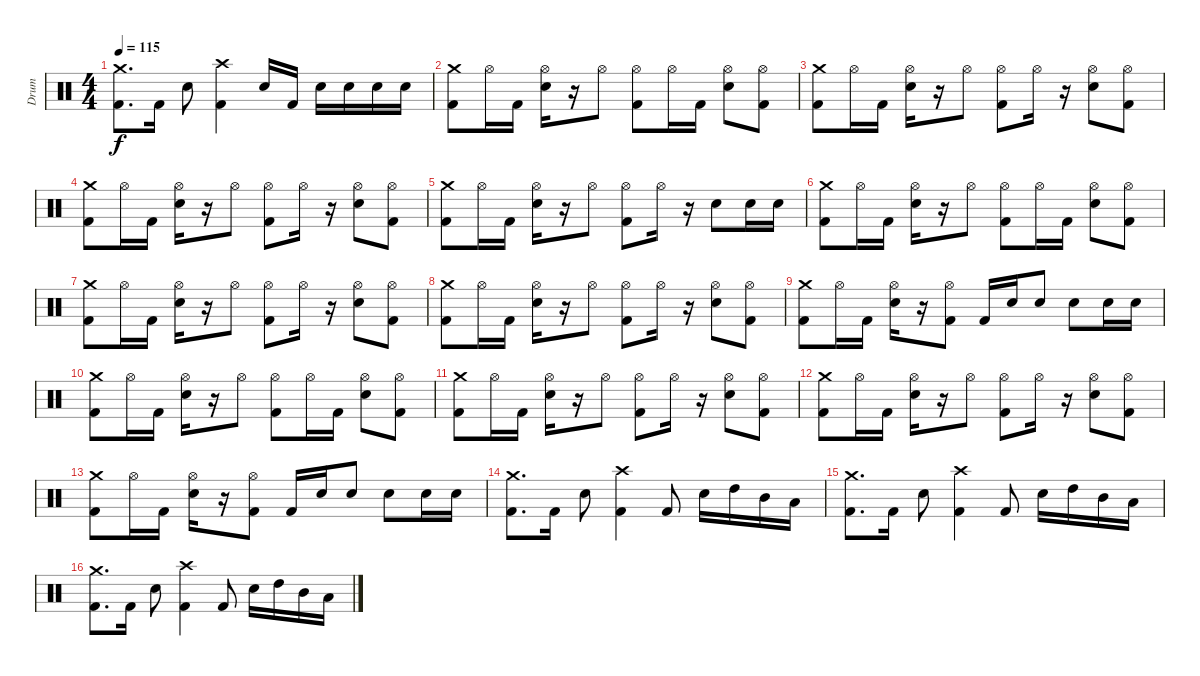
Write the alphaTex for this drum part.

\track ("Drum" "Drum") {instrument percussion}
\staff {score}
\articulation defaults
\ts (4 4)
\tempo 115
\clef neutral
\ks c
("Crash medium (hit)" "Kick (hit) 2").8{d dy f} "Kick (hit) 2".16 "Snare (hit) 2".8 ("Crash high (hit)" "Kick (hit) 2").4 "Electric Snare (hit)".16 "Kick (hit) 2".16 "Electric Snare (hit)".16 "Electric Snare (hit)".16 "Electric Snare (hit)".16 "Electric Snare (hit)".16 |
("Crash medium (hit)" "Kick (hit) 2").8 "Hi-Hat (open)".16 "Kick (hit) 2".16 ("Hi-Hat (open)" "Electric Snare (hit)").16 r.16 "Hi-Hat (open)".8 ("Hi-Hat (open)" "Kick (hit) 2").8 "Hi-Hat (open)".16 "Kick (hit) 2".16 ("Hi-Hat (open)" "Electric Snare (hit)").8 ("Hi-Hat (open)" "Kick (hit) 2").8 |
("Crash medium (hit)" "Kick (hit) 2").8 "Hi-Hat (open)".16 "Kick (hit) 2".16 ("Hi-Hat (open)" "Electric Snare (hit)").16 r.16 "Hi-Hat (open)".8 ("Hi-Hat (open)" "Kick (hit) 2").8 "Hi-Hat (open)".16 r.16 ("Hi-Hat (open)" "Electric Snare (hit)").8 ("Hi-Hat (open)" "Kick (hit) 2").8 |
("Crash medium (hit)" "Kick (hit) 2").8 "Hi-Hat (open)".16 "Kick (hit) 2".16 ("Hi-Hat (open)" "Electric Snare (hit)").16 r.16 "Hi-Hat (open)".8 ("Hi-Hat (open)" "Kick (hit) 2").8 "Hi-Hat (open)".16 r.16 ("Hi-Hat (open)" "Electric Snare (hit)").8 ("Hi-Hat (open)" "Kick (hit) 2").8 |
("Crash medium (hit)" "Kick (hit) 2").8 "Hi-Hat (open)".16 "Kick (hit) 2".16 ("Hi-Hat (open)" "Electric Snare (hit)").16 r.16 "Hi-Hat (open)".8 ("Hi-Hat (open)" "Kick (hit) 2").8 "Hi-Hat (open)".16 r.16 "Electric Snare (hit)".8 "Electric Snare (hit)".16 "Electric Snare (hit)".16 |
("Crash medium (hit)" "Kick (hit) 2").8 "Hi-Hat (open)".16 "Kick (hit) 2".16 ("Hi-Hat (open)" "Electric Snare (hit)").16 r.16 "Hi-Hat (open)".8 ("Hi-Hat (open)" "Kick (hit) 2").8 "Hi-Hat (open)".16 "Kick (hit) 2".16 ("Hi-Hat (open)" "Electric Snare (hit)").8 ("Hi-Hat (open)" "Kick (hit) 2").8 |
("Crash medium (hit)" "Kick (hit) 2").8 "Hi-Hat (open)".16 "Kick (hit) 2".16 ("Hi-Hat (open)" "Electric Snare (hit)").16 r.16 "Hi-Hat (open)".8 ("Hi-Hat (open)" "Kick (hit) 2").8 "Hi-Hat (open)".16 r.16 ("Hi-Hat (open)" "Electric Snare (hit)").8 ("Hi-Hat (open)" "Kick (hit) 2").8 |
("Crash medium (hit)" "Kick (hit) 2").8 "Hi-Hat (open)".16 "Kick (hit) 2".16 ("Hi-Hat (open)" "Electric Snare (hit)").16 r.16 "Hi-Hat (open)".8 ("Hi-Hat (open)" "Kick (hit) 2").8 "Hi-Hat (open)".16 r.16 ("Hi-Hat (open)" "Electric Snare (hit)").8 ("Hi-Hat (open)" "Kick (hit) 2").8 |
("Crash medium (hit)" "Kick (hit) 2").8 "Hi-Hat (open)".16 "Kick (hit) 2".16 ("Hi-Hat (open)" "Electric Snare (hit)").16 r.16 ("Hi-Hat (open)" "Kick (hit) 2").8 "Kick (hit) 2".16 "Electric Snare (hit)".16 "Electric Snare (hit)".8 "Electric Snare (hit)".8 "Electric Snare (hit)".16 "Electric Snare (hit)".16 |
("Crash medium (hit)" "Kick (hit) 2").8 "Hi-Hat (open)".16 "Kick (hit) 2".16 ("Hi-Hat (open)" "Electric Snare (hit)").16 r.16 "Hi-Hat (open)".8 ("Hi-Hat (open)" "Kick (hit) 2").8 "Hi-Hat (open)".16 "Kick (hit) 2".16 ("Hi-Hat (open)" "Electric Snare (hit)").8 ("Hi-Hat (open)" "Kick (hit) 2").8 |
("Crash medium (hit)" "Kick (hit) 2").8 "Hi-Hat (open)".16 "Kick (hit) 2".16 ("Hi-Hat (open)" "Electric Snare (hit)").16 r.16 "Hi-Hat (open)".8 ("Hi-Hat (open)" "Kick (hit) 2").8 "Hi-Hat (open)".16 r.16 ("Hi-Hat (open)" "Electric Snare (hit)").8 ("Hi-Hat (open)" "Kick (hit) 2").8 |
("Crash medium (hit)" "Kick (hit) 2").8 "Hi-Hat (open)".16 "Kick (hit) 2".16 ("Hi-Hat (open)" "Electric Snare (hit)").16 r.16 "Hi-Hat (open)".8 ("Hi-Hat (open)" "Kick (hit) 2").8 "Hi-Hat (open)".16 r.16 ("Hi-Hat (open)" "Electric Snare (hit)").8 ("Hi-Hat (open)" "Kick (hit) 2").8 |
("Crash medium (hit)" "Kick (hit) 2").8 "Hi-Hat (open)".16 "Kick (hit) 2".16 ("Hi-Hat (open)" "Electric Snare (hit)").16 r.16 ("Hi-Hat (open)" "Kick (hit) 2").8 "Kick (hit) 2".16 "Electric Snare (hit)".16 "Electric Snare (hit)".8 "Electric Snare (hit)".8 "Electric Snare (hit)".16 "Electric Snare (hit)".16 |
("Crash medium (hit)" "Kick (hit) 2").8{d} "Kick (hit) 2".16 "Snare (hit) 2".8 ("Crash high (hit)" "Kick (hit) 2").4 "Kick (hit) 2".8 "Electric Snare (hit)".16 "High Tom (hit)".16 "Mid Tom (hit)".16 "Low Tom (hit)".16 |
("Crash medium (hit)" "Kick (hit) 2").8{d} "Kick (hit) 2".16 "Snare (hit) 2".8 ("Crash high (hit)" "Kick (hit) 2").4 "Kick (hit) 2".8 "Electric Snare (hit)".16 "High Tom (hit)".16 "Mid Tom (hit)".16 "Low Tom (hit)".16 |
("Crash medium (hit)" "Kick (hit) 2").8{d} "Kick (hit) 2".16 "Snare (hit) 2".8 ("Crash high (hit)" "Kick (hit) 2").4 "Kick (hit) 2".8 "Electric Snare (hit)".16 "High Tom (hit)".16 "Mid Tom (hit)".16 "Low Tom (hit)".16
